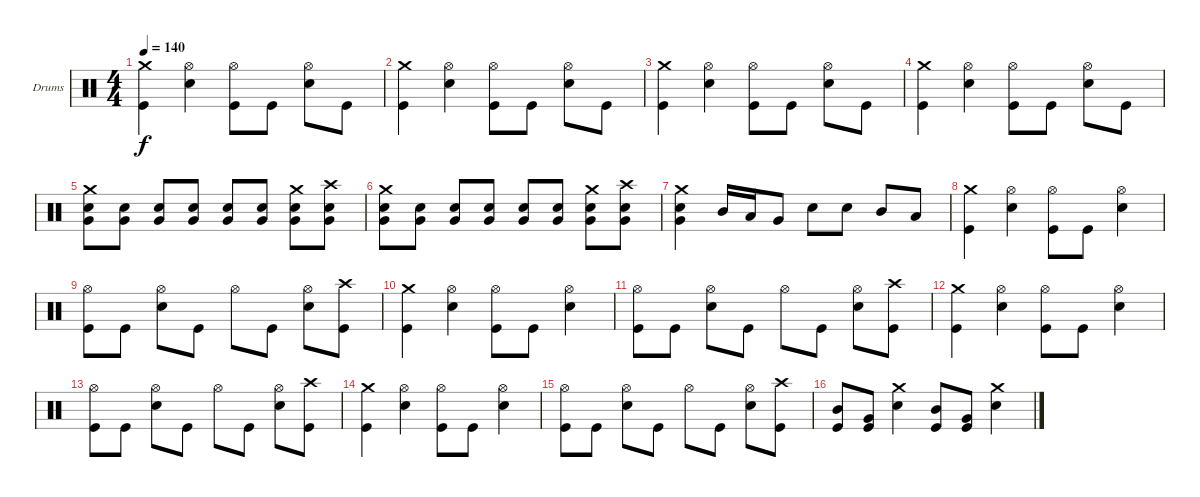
\bracketExtendMode groupsimilarinstruments
\firstSystemTrackNameOrientation horizontal
\otherSystemsTrackNameOrientation horizontal
\track ("Ударные" "Drums") {instrument percussion}
\staff {score}
\articulation defaults
\ts (4 4)
\tempo 140
\clef neutral
\ks c
("Crash medium (hit)" "Kick (hit)").4{dy f} ("Hi-Hat (open)" "Snare (hit) 2").4 ("Hi-Hat (open)" "Kick (hit)").8 "Kick (hit)".8 ("Hi-Hat (open)" "Snare (hit) 2").8 "Kick (hit)".8 |
("Crash medium (hit)" "Kick (hit)").4 ("Hi-Hat (open)" "Snare (hit) 2").4 ("Hi-Hat (open)" "Kick (hit)").8 "Kick (hit)".8 ("Hi-Hat (open)" "Snare (hit) 2").8 "Kick (hit)".8 |
("Crash medium (hit)" "Kick (hit)").4 ("Hi-Hat (open)" "Snare (hit) 2").4 ("Hi-Hat (open)" "Kick (hit)").8 "Kick (hit)".8 ("Hi-Hat (open)" "Snare (hit) 2").8 "Kick (hit)".8 |
("Crash medium (hit)" "Kick (hit)").4 ("Hi-Hat (open)" "Snare (hit) 2").4 ("Hi-Hat (open)" "Kick (hit)").8 "Kick (hit)".8 ("Hi-Hat (open)" "Snare (hit) 2").8 "Kick (hit)".8 |
("Crash medium (hit)" "Very Low Tom (hit)" "Snare (hit) 2").8 ("Very Low Tom (hit)" "Snare (hit) 2").8 ("Very Low Tom (hit)" "Snare (hit) 2").8 ("Very Low Tom (hit)" "Snare (hit) 2").8 ("Very Low Tom (hit)" "Snare (hit) 2").8 ("Very Low Tom (hit)" "Snare (hit) 2").8 ("Crash medium (hit)" "Very Low Tom (hit)" "Snare (hit) 2").8 ("Crash high (hit)" "Very Low Tom (hit)" "Snare (hit) 2").8 |
("Crash medium (hit)" "Very Low Tom (hit)" "Snare (hit) 2").8 ("Very Low Tom (hit)" "Snare (hit) 2").8 ("Very Low Tom (hit)" "Snare (hit) 2").8 ("Very Low Tom (hit)" "Snare (hit) 2").8 ("Very Low Tom (hit)" "Snare (hit) 2").8 ("Very Low Tom (hit)" "Snare (hit) 2").8 ("Crash medium (hit)" "Very Low Tom (hit)" "Snare (hit) 2").8 ("Crash high (hit)" "Very Low Tom (hit)" "Snare (hit) 2").8 |
("Crash medium (hit)" "Very Low Tom (hit)" "Snare (hit) 2").4 "Mid Tom (hit)".16 "Low Tom (hit)".16 "Very Low Tom (hit)".8 "Snare (hit) 2".8 "Snare (hit) 2".8 "Mid Tom (hit)".8 "Low Tom (hit)".8 |
("Crash medium (hit)" "Kick (hit)").4 ("Hi-Hat (open)" "Snare (hit) 2").4 ("Hi-Hat (open)" "Kick (hit)").8 "Kick (hit)".8 ("Hi-Hat (open)" "Snare (hit) 2").4 |
("Hi-Hat (open)" "Kick (hit)").8 "Kick (hit)".8 ("Hi-Hat (open)" "Snare (hit) 2").8 "Kick (hit)".8 "Hi-Hat (open)".8 "Kick (hit)".8 ("Hi-Hat (open)" "Snare (hit) 2").8 ("Crash high (hit)" "Kick (hit)").8 |
("Crash medium (hit)" "Kick (hit)").4 ("Hi-Hat (open)" "Snare (hit) 2").4 ("Hi-Hat (open)" "Kick (hit)").8 "Kick (hit)".8 ("Hi-Hat (open)" "Snare (hit) 2").4 |
("Hi-Hat (open)" "Kick (hit)").8 "Kick (hit)".8 ("Hi-Hat (open)" "Snare (hit) 2").8 "Kick (hit)".8 "Hi-Hat (open)".8 "Kick (hit)".8 ("Hi-Hat (open)" "Snare (hit) 2").8 ("Crash high (hit)" "Kick (hit)").8 |
("Crash medium (hit)" "Kick (hit)").4 ("Hi-Hat (open)" "Snare (hit) 2").4 ("Hi-Hat (open)" "Kick (hit)").8 "Kick (hit)".8 ("Hi-Hat (open)" "Snare (hit) 2").4 |
("Hi-Hat (open)" "Kick (hit)").8 "Kick (hit)".8 ("Hi-Hat (open)" "Snare (hit) 2").8 "Kick (hit)".8 "Hi-Hat (open)".8 "Kick (hit)".8 ("Hi-Hat (open)" "Snare (hit) 2").8 ("Crash high (hit)" "Kick (hit)").8 |
("Crash medium (hit)" "Kick (hit)").4 ("Hi-Hat (open)" "Snare (hit) 2").4 ("Hi-Hat (open)" "Kick (hit)").8 "Kick (hit)".8 ("Hi-Hat (open)" "Snare (hit) 2").4 |
("Hi-Hat (open)" "Kick (hit)").8 "Kick (hit)".8 ("Hi-Hat (open)" "Snare (hit) 2").8 "Kick (hit)".8 "Hi-Hat (open)".8 "Kick (hit)".8 ("Hi-Hat (open)" "Snare (hit) 2").8 ("Crash high (hit)" "Kick (hit)").8 |
("Mid Tom (hit)" "Kick (hit)").8 ("Very Low Tom (hit)" "Kick (hit)").8 ("Crash medium (hit)" "Snare (hit) 2").4 ("Mid Tom (hit)" "Kick (hit)").8 ("Very Low Tom (hit)" "Kick (hit)").8 ("Crash medium (hit)" "Snare (hit) 2").4
